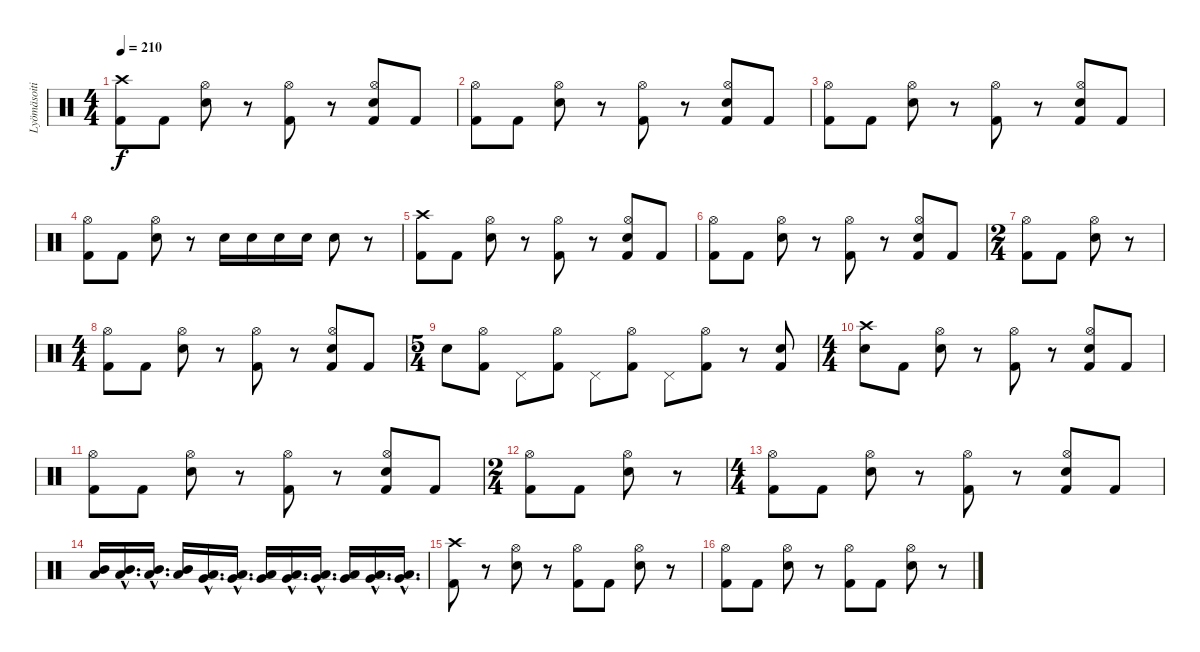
\track ("Lyömäsoitin" "Lyömäsoiti") {instrument percussion}
\staff {score}
\articulation defaults
\ts (4 4)
\tempo 210
\clef neutral
\ks c
("Crash high (hit)" "Kick (hit) 2").8{dy f} "Kick (hit) 2".8 ("Hi-Hat (open)" "Electric Snare (hit)").8 r.8 ("Hi-Hat (open)" "Kick (hit) 2").8 r.8 ("Hi-Hat (open)" "Electric Snare (hit)" "Kick (hit) 2").8 "Kick (hit) 2".8 |
("Hi-Hat (open)" "Kick (hit) 2").8 "Kick (hit) 2".8 ("Hi-Hat (open)" "Electric Snare (hit)").8 r.8 ("Hi-Hat (open)" "Kick (hit) 2").8 r.8 ("Hi-Hat (open)" "Electric Snare (hit)" "Kick (hit) 2").8 "Kick (hit) 2".8 |
("Hi-Hat (open)" "Kick (hit) 2").8 "Kick (hit) 2".8 ("Hi-Hat (open)" "Electric Snare (hit)").8 r.8 ("Hi-Hat (open)" "Kick (hit) 2").8 r.8 ("Hi-Hat (open)" "Electric Snare (hit)" "Kick (hit) 2").8 "Kick (hit) 2".8 |
("Hi-Hat (open)" "Kick (hit) 2").8 "Kick (hit) 2".8 ("Hi-Hat (open)" "Electric Snare (hit)").8 r.8 "Electric Snare (hit)".16 "Electric Snare (hit)".16 "Electric Snare (hit)".16 "Electric Snare (hit)".16 "Electric Snare (hit)".8 r.8 |
("Crash high (hit)" "Kick (hit) 2").8 "Kick (hit) 2".8 ("Hi-Hat (open)" "Electric Snare (hit)").8 r.8 ("Hi-Hat (open)" "Kick (hit) 2").8 r.8 ("Hi-Hat (open)" "Electric Snare (hit)" "Kick (hit) 2").8 "Kick (hit) 2".8 |
("Hi-Hat (open)" "Kick (hit) 2").8 "Kick (hit) 2".8 ("Hi-Hat (open)" "Electric Snare (hit)").8 r.8 ("Hi-Hat (open)" "Kick (hit) 2").8 r.8 ("Hi-Hat (open)" "Electric Snare (hit)" "Kick (hit) 2").8 "Kick (hit) 2".8 |
\ts (2 4)
("Hi-Hat (open)" "Kick (hit) 2").8 "Kick (hit) 2".8 ("Hi-Hat (open)" "Electric Snare (hit)").8 r.8 |
\ts (4 4)
("Hi-Hat (open)" "Kick (hit) 2").8 "Kick (hit) 2".8 ("Hi-Hat (open)" "Electric Snare (hit)").8 r.8 ("Hi-Hat (open)" "Kick (hit) 2").8 r.8 ("Hi-Hat (open)" "Electric Snare (hit)" "Kick (hit) 2").8 "Kick (hit) 2".8 |
\ts (5 4)
"Electric Snare (hit)".8 ("Hi-Hat (open)" "Kick (hit) 2").8 "Pedal Hi-Hat (hit)".8 ("Hi-Hat (open)" "Kick (hit) 2").8 "Pedal Hi-Hat (hit)".8 ("Hi-Hat (open)" "Kick (hit) 2").8 "Pedal Hi-Hat (hit)".8 ("Hi-Hat (open)" "Kick (hit) 2").8 r.8 ("Electric Snare (hit)" "Kick (hit) 2").8 |
\ts (4 4)
("Crash high (hit)" "Electric Snare (hit)").8 "Kick (hit) 2".8 ("Hi-Hat (open)" "Electric Snare (hit)").8 r.8 ("Hi-Hat (open)" "Kick (hit) 2").8 r.8 ("Hi-Hat (open)" "Electric Snare (hit)" "Kick (hit) 2").8 "Kick (hit) 2".8 |
("Hi-Hat (open)" "Kick (hit) 2").8 "Kick (hit) 2".8 ("Hi-Hat (open)" "Electric Snare (hit)").8 r.8 ("Hi-Hat (open)" "Kick (hit) 2").8 r.8 ("Hi-Hat (open)" "Electric Snare (hit)" "Kick (hit) 2").8 "Kick (hit) 2".8 |
\ts (2 4)
("Hi-Hat (open)" "Kick (hit) 2").8 "Kick (hit) 2".8 ("Hi-Hat (open)" "Electric Snare (hit)").8 r.8 |
\ts (4 4)
("Hi-Hat (open)" "Kick (hit) 2").8 "Kick (hit) 2".8 ("Hi-Hat (open)" "Snare (hit) 2").8 r.8 ("Hi-Hat (open)" "Kick (hit) 2").8 r.8 ("Hi-Hat (open)" "Electric Snare (hit)" "Kick (hit) 2").8 "Kick (hit) 2".8 |
("Mid Tom (hit)" "Low Tom (hit)").16 ("Mid Tom (hit)"{hac} "Low Tom (hit)"{hac}).16{d} ("Mid Tom (hit)"{hac} "Low Tom (hit)"{hac}).16{d} ("Mid Tom (hit)" "Low Tom (hit)").16 ("Low Tom (hit)"{hac} "Very Low Tom (hit)"{hac}).16{d} ("Low Tom (hit)"{hac} "Very Low Tom (hit)"{hac}).16{d} ("Low Tom (hit)" "Very Low Tom (hit)").16 ("Low Tom (hit)"{hac} "Very Low Tom (hit)"{hac}).16{d} ("Low Tom (hit)"{hac} "Very Low Tom (hit)"{hac}).16{d} ("Low Tom (hit)" "Very Low Tom (hit)").16 ("Very Low Tom (hit)"{hac} "Low Floor Tom (hit)"{hac}).16{d} ("Very Low Tom (hit)"{hac} "Low Floor Tom (hit)"{hac}).16{d} |
("Crash high (hit)" "Kick (hit) 2").8 r.8 ("Hi-Hat (open)" "Electric Snare (hit)").8 r.8 ("Hi-Hat (open)" "Kick (hit) 2").8 "Kick (hit) 2".8 ("Hi-Hat (open)" "Electric Snare (hit)").8 r.8 |
("Hi-Hat (open)" "Kick (hit) 2").8 "Kick (hit) 2".8 ("Hi-Hat (open)" "Electric Snare (hit)").8 r.8 ("Hi-Hat (open)" "Kick (hit) 2").8 "Kick (hit) 2".8 ("Hi-Hat (open)" "Electric Snare (hit)").8 r.8
